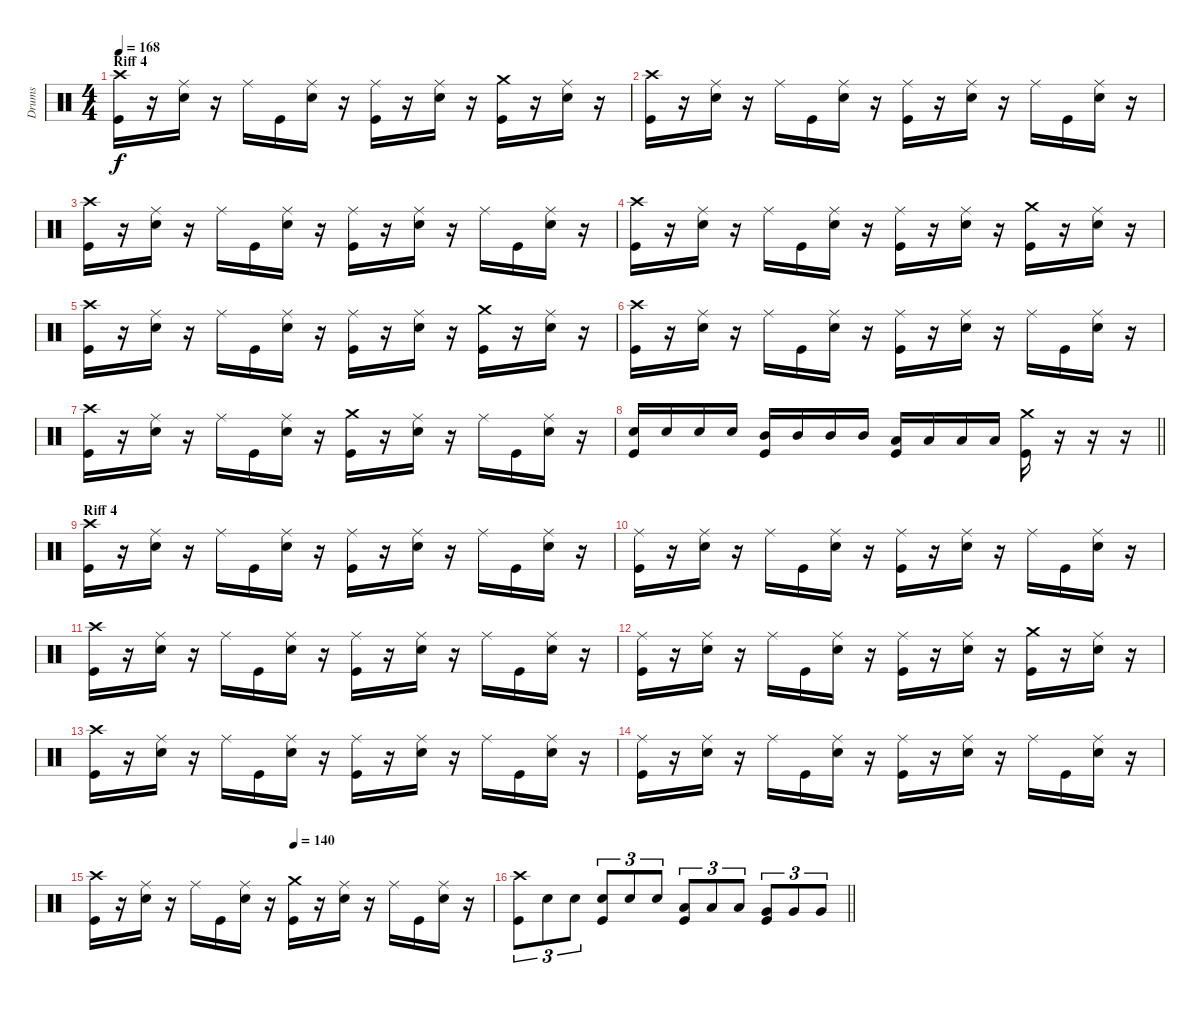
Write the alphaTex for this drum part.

\track ("Drums" "Drums") {instrument percussion}
\staff {score}
\articulation defaults
\ts (4 4)
\section ("" "Riff 4")
\tempo 168
\clef neutral
\ks c
("Crash high (hit)" "Kick (hit)").16{dy f} r.16 ("Ride (middle)" "Electric Snare (hit)").16 r.16 "Ride (middle)".16 "Kick (hit)".16 ("Ride (middle)" "Electric Snare (hit)").16 r.16 ("Ride (middle)" "Kick (hit)").16 r.16 ("Ride (middle)" "Electric Snare (hit)").16 r.16 ("Crash medium (hit)" "Kick (hit)").16 r.16 ("Ride (middle)" "Electric Snare (hit)").16 r.16 |
("Crash high (hit)" "Kick (hit)").16 r.16 ("Ride (middle)" "Electric Snare (hit)").16 r.16 "Ride (middle)".16 "Kick (hit)".16 ("Ride (middle)" "Electric Snare (hit)").16 r.16 ("Ride (middle)" "Kick (hit)").16 r.16 ("Ride (middle)" "Electric Snare (hit)").16 r.16 "Ride (middle)".16 "Kick (hit)".16 ("Ride (middle)" "Electric Snare (hit)").16 r.16 |
("Crash high (hit)" "Kick (hit)").16 r.16 ("Ride (middle)" "Electric Snare (hit)").16 r.16 "Ride (middle)".16 "Kick (hit)".16 ("Ride (middle)" "Electric Snare (hit)").16 r.16 ("Ride (middle)" "Kick (hit)").16 r.16 ("Ride (middle)" "Electric Snare (hit)").16 r.16 "Ride (middle)".16 "Kick (hit)".16 ("Ride (middle)" "Electric Snare (hit)").16 r.16 |
("Crash high (hit)" "Kick (hit)").16 r.16 ("Ride (middle)" "Electric Snare (hit)").16 r.16 "Ride (middle)".16 "Kick (hit)".16 ("Ride (middle)" "Electric Snare (hit)").16 r.16 ("Ride (middle)" "Kick (hit)").16 r.16 ("Ride (middle)" "Electric Snare (hit)").16 r.16 ("Crash medium (hit)" "Kick (hit)").16 r.16 ("Ride (middle)" "Electric Snare (hit)").16 r.16 |
("Crash high (hit)" "Kick (hit)").16 r.16 ("Ride (middle)" "Electric Snare (hit)").16 r.16 "Ride (middle)".16 "Kick (hit)".16 ("Ride (middle)" "Electric Snare (hit)").16 r.16 ("Ride (middle)" "Kick (hit)").16 r.16 ("Ride (middle)" "Electric Snare (hit)").16 r.16 ("Crash medium (hit)" "Kick (hit)").16 r.16 ("Ride (middle)" "Electric Snare (hit)").16 r.16 |
("Crash high (hit)" "Kick (hit)").16 r.16 ("Ride (middle)" "Electric Snare (hit)").16 r.16 "Ride (middle)".16 "Kick (hit)".16 ("Ride (middle)" "Electric Snare (hit)").16 r.16 ("Ride (middle)" "Kick (hit)").16 r.16 ("Ride (middle)" "Electric Snare (hit)").16 r.16 "Ride (middle)".16 "Kick (hit)".16 ("Ride (middle)" "Electric Snare (hit)").16 r.16 |
("Crash high (hit)" "Kick (hit)").16 r.16 ("Ride (middle)" "Electric Snare (hit)").16 r.16 "Ride (middle)".16 "Kick (hit)".16 ("Ride (middle)" "Electric Snare (hit)").16 r.16 ("Crash medium (hit)" "Kick (hit)").16 r.16 ("Ride (middle)" "Electric Snare (hit)").16 r.16 "Ride (middle)".16 "Kick (hit)".16 ("Ride (middle)" "Electric Snare (hit)").16 r.16 |
\barLineRight lightlight
("Electric Snare (hit)" "Kick (hit)").16 "Electric Snare (hit)".16 "Electric Snare (hit)".16 "Electric Snare (hit)".16 ("Mid Tom (hit)" "Kick (hit)").16 "Mid Tom (hit)".16 "Mid Tom (hit)".16 "Mid Tom (hit)".16 ("Low Tom (hit)" "Kick (hit)").16 "Low Tom (hit)".16 "Low Tom (hit)".16 "Low Tom (hit)".16 ("Crash medium (hit)" "Kick (hit)").16 r.16 r.16 r.16 |
\section ("" "Riff 4")
("Crash high (hit)" "Kick (hit)").16 r.16 ("Ride (middle)" "Electric Snare (hit)").16 r.16 "Ride (middle)".16 "Kick (hit)".16 ("Ride (middle)" "Electric Snare (hit)").16 r.16 ("Ride (middle)" "Kick (hit)").16 r.16 ("Ride (middle)" "Electric Snare (hit)").16 r.16 "Ride (middle)".16 "Kick (hit)".16 ("Ride (middle)" "Electric Snare (hit)").16 r.16 |
("Ride (middle)" "Kick (hit)").16 r.16 ("Ride (middle)" "Electric Snare (hit)").16 r.16 "Ride (middle)".16 "Kick (hit)".16 ("Ride (middle)" "Electric Snare (hit)").16 r.16 ("Ride (middle)" "Kick (hit)").16 r.16 ("Ride (middle)" "Electric Snare (hit)").16 r.16 "Ride (middle)".16 "Kick (hit)".16 ("Ride (middle)" "Electric Snare (hit)").16 r.16 |
("Crash high (hit)" "Kick (hit)").16 r.16 ("Ride (middle)" "Electric Snare (hit)").16 r.16 "Ride (middle)".16 "Kick (hit)".16 ("Ride (middle)" "Electric Snare (hit)").16 r.16 ("Ride (middle)" "Kick (hit)").16 r.16 ("Ride (middle)" "Electric Snare (hit)").16 r.16 "Ride (middle)".16 "Kick (hit)".16 ("Ride (middle)" "Electric Snare (hit)").16 r.16 |
("Ride (middle)" "Kick (hit)").16 r.16 ("Ride (middle)" "Electric Snare (hit)").16 r.16 "Ride (middle)".16 "Kick (hit)".16 ("Ride (middle)" "Electric Snare (hit)").16 r.16 ("Ride (middle)" "Kick (hit)").16 r.16 ("Ride (middle)" "Electric Snare (hit)").16 r.16 ("Crash medium (hit)" "Kick (hit)").16 r.16 ("Ride (middle)" "Electric Snare (hit)").16 r.16 |
("Crash high (hit)" "Kick (hit)").16 r.16 ("Ride (middle)" "Electric Snare (hit)").16 r.16 "Ride (middle)".16 "Kick (hit)".16 ("Ride (middle)" "Electric Snare (hit)").16 r.16 ("Ride (middle)" "Kick (hit)").16 r.16 ("Ride (middle)" "Electric Snare (hit)").16 r.16 "Ride (middle)".16 "Kick (hit)".16 ("Ride (middle)" "Electric Snare (hit)").16 r.16 |
("Ride (middle)" "Kick (hit)").16 r.16 ("Ride (middle)" "Electric Snare (hit)").16 r.16 "Ride (middle)".16 "Kick (hit)".16 ("Ride (middle)" "Electric Snare (hit)").16 r.16 ("Ride (middle)" "Kick (hit)").16 r.16 ("Ride (middle)" "Electric Snare (hit)").16 r.16 "Ride (middle)".16 "Kick (hit)".16 ("Ride (middle)" "Electric Snare (hit)").16 r.16 |
\tempo (140 0.5)
("Crash high (hit)" "Kick (hit)").16 r.16 ("Ride (middle)" "Electric Snare (hit)").16 r.16 "Ride (middle)".16 "Kick (hit)".16 ("Ride (middle)" "Electric Snare (hit)").16 r.16 ("Crash medium (hit)" "Kick (hit)").16 r.16 ("Ride (middle)" "Electric Snare (hit)").16 r.16 "Ride (middle)".16 "Kick (hit)".16 ("Ride (middle)" "Electric Snare (hit)").16 r.16 |
\barLineRight lightlight
("Crash high (hit)" "Kick (hit)").8{tu (3 2)} "Electric Snare (hit)".8{tu (3 2)} "Electric Snare (hit)".8{tu (3 2)} ("Electric Snare (hit)" "Kick (hit)").8{tu (3 2)} "Electric Snare (hit)".8{tu (3 2)} "Electric Snare (hit)".8{tu (3 2)} ("Low Tom (hit)" "Kick (hit)").8{tu (3 2)} "Low Tom (hit)".8{tu (3 2)} "Low Tom (hit)".8{tu (3 2)} ("Very Low Tom (hit)" "Kick (hit)").8{tu (3 2)} "Very Low Tom (hit)".8{tu (3 2)} "Very Low Tom (hit)".8{tu (3 2)}
